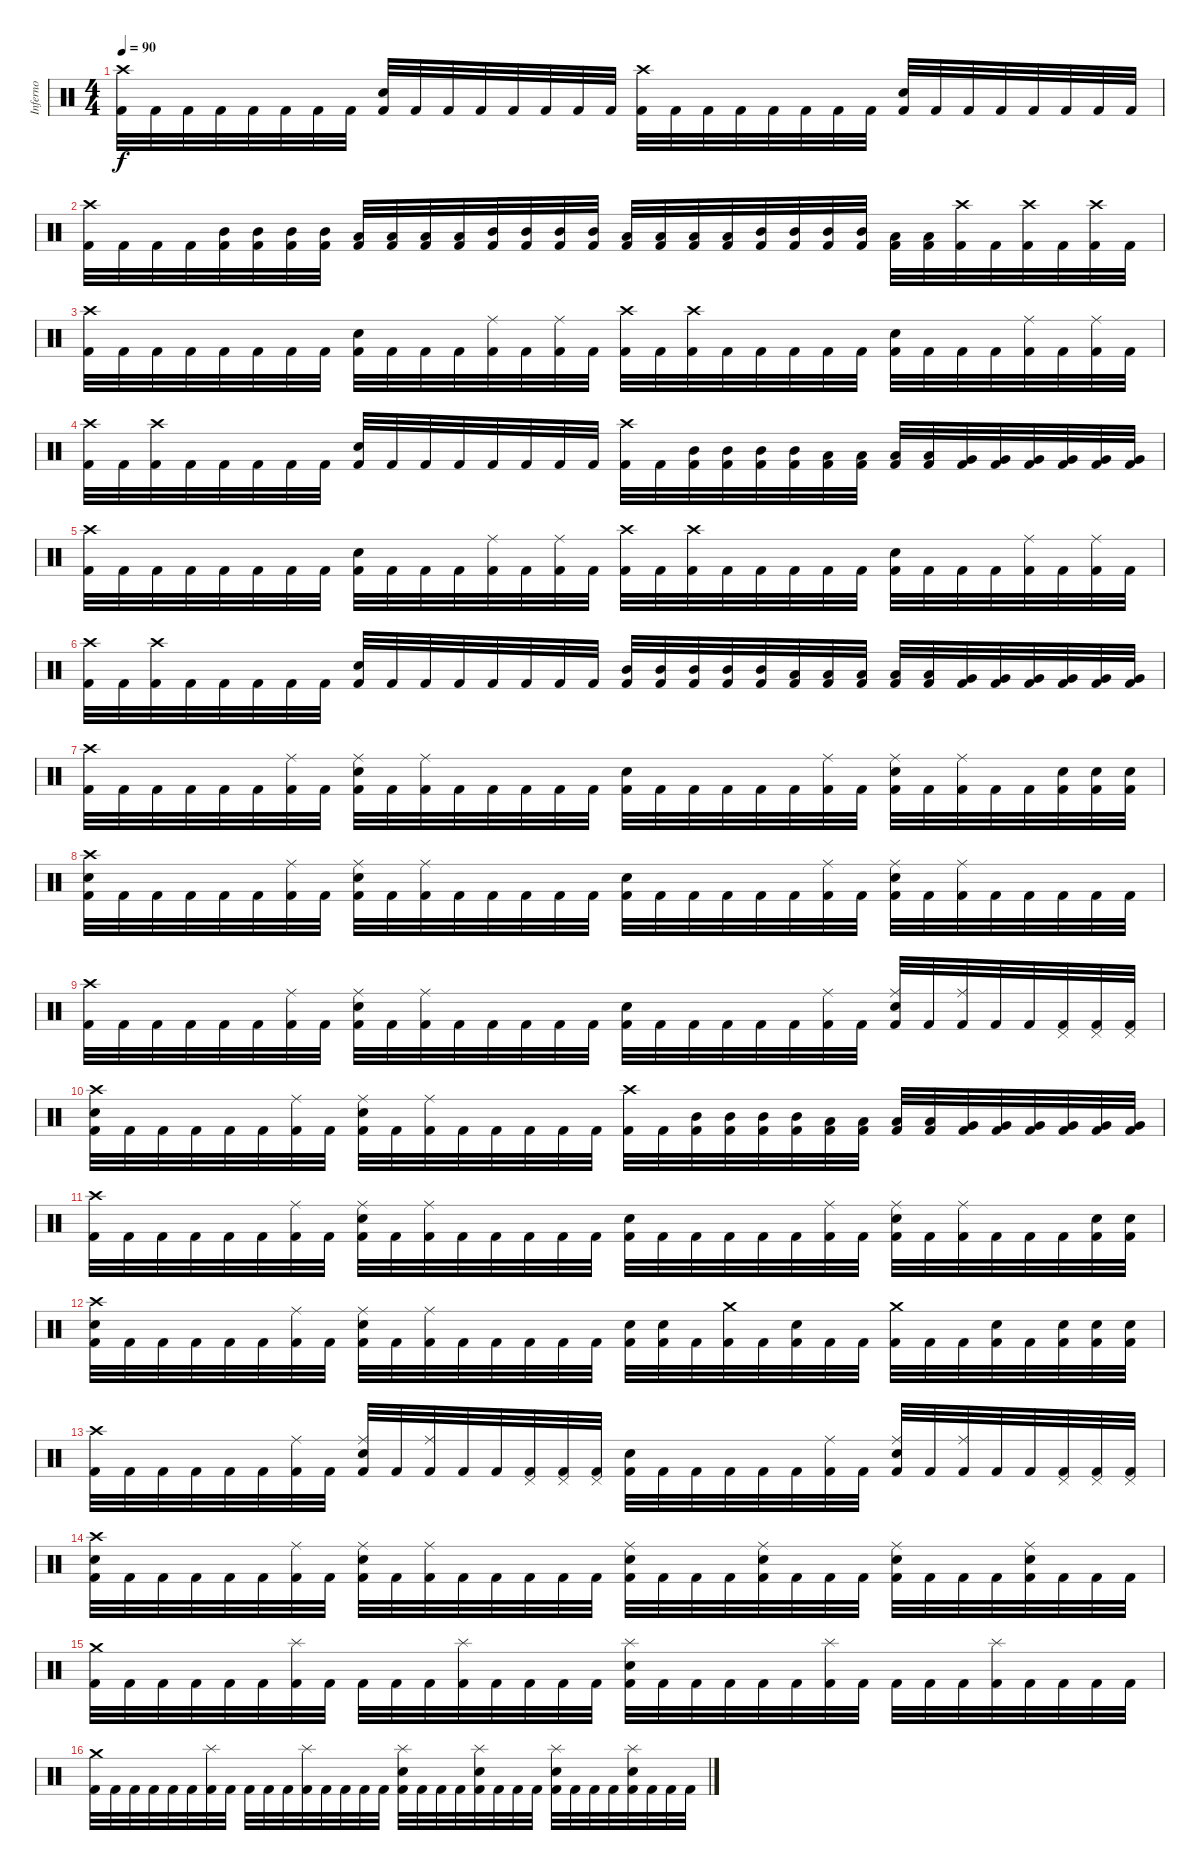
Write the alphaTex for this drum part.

\track ("Inferno" "Inferno") {instrument percussion}
\staff {score}
\articulation defaults
\ts (4 4)
\tempo 90
\clef neutral
\ks c
("Crash high (hit)" "Kick (hit) 2").32{dy f} "Kick (hit) 2".32 "Kick (hit) 2".32 "Kick (hit) 2".32 "Kick (hit) 2".32 "Kick (hit) 2".32 "Kick (hit) 2".32 "Kick (hit) 2".32 ("Electric Snare (hit)" "Kick (hit) 2").32 "Kick (hit) 2".32 "Kick (hit) 2".32 "Kick (hit) 2".32 "Kick (hit) 2".32 "Kick (hit) 2".32 "Kick (hit) 2".32 "Kick (hit) 2".32 ("Crash high (hit)" "Kick (hit) 2").32 "Kick (hit) 2".32 "Kick (hit) 2".32 "Kick (hit) 2".32 "Kick (hit) 2".32 "Kick (hit) 2".32 "Kick (hit) 2".32 "Kick (hit) 2".32 ("Electric Snare (hit)" "Kick (hit) 2").32 "Kick (hit) 2".32 "Kick (hit) 2".32 "Kick (hit) 2".32 "Kick (hit) 2".32 "Kick (hit) 2".32 "Kick (hit) 2".32 "Kick (hit) 2".32 |
("Crash high (hit)" "Kick (hit) 2").32 "Kick (hit) 2".32 "Kick (hit) 2".32 "Kick (hit) 2".32 ("Mid Tom (hit)" "Kick (hit) 2").32 ("Mid Tom (hit)" "Kick (hit) 2").32 ("Mid Tom (hit)" "Kick (hit) 2").32 ("Mid Tom (hit)" "Kick (hit) 2").32 ("Low Tom (hit)" "Kick (hit) 2").32 ("Low Tom (hit)" "Kick (hit) 2").32 ("Low Tom (hit)" "Kick (hit) 2").32 ("Low Tom (hit)" "Kick (hit) 2").32 ("Mid Tom (hit)" "Kick (hit) 2").32 ("Mid Tom (hit)" "Kick (hit) 2").32 ("Mid Tom (hit)" "Kick (hit) 2").32 ("Mid Tom (hit)" "Kick (hit) 2").32 ("Low Tom (hit)" "Kick (hit) 2").32 ("Low Tom (hit)" "Kick (hit) 2").32 ("Low Tom (hit)" "Kick (hit) 2").32 ("Low Tom (hit)" "Kick (hit) 2").32 ("Mid Tom (hit)" "Kick (hit) 2").32 ("Mid Tom (hit)" "Kick (hit) 2").32 ("Mid Tom (hit)" "Kick (hit) 2").32 ("Mid Tom (hit)" "Kick (hit) 2").32 ("Low Tom (hit)" "Kick (hit) 2").32 ("Low Tom (hit)" "Kick (hit) 2").32 ("Crash high (hit)" "Kick (hit) 2").32 "Kick (hit) 2".32 ("Crash high (hit)" "Kick (hit) 2").32 "Kick (hit) 2".32 ("Crash high (hit)" "Kick (hit) 2").32 "Kick (hit) 2".32 |
("Crash high (hit)" "Kick (hit) 2").32 "Kick (hit) 2".32 "Kick (hit) 2".32 "Kick (hit) 2".32 "Kick (hit) 2".32 "Kick (hit) 2".32 "Kick (hit) 2".32 "Kick (hit) 2".32 ("Electric Snare (hit)" "Kick (hit) 2").32 "Kick (hit) 2".32 "Kick (hit) 2".32 "Kick (hit) 2".32 ("Ride (middle)" "Kick (hit) 2").32 "Kick (hit) 2".32 ("Ride (middle)" "Kick (hit) 2").32 "Kick (hit) 2".32 ("Crash high (hit)" "Kick (hit) 2").32 "Kick (hit) 2".32 ("Crash high (hit)" "Kick (hit) 2").32 "Kick (hit) 2".32 "Kick (hit) 2".32 "Kick (hit) 2".32 "Kick (hit) 2".32 "Kick (hit) 2".32 ("Electric Snare (hit)" "Kick (hit) 2").32 "Kick (hit) 2".32 "Kick (hit) 2".32 "Kick (hit) 2".32 ("Ride (middle)" "Kick (hit) 2").32 "Kick (hit) 2".32 ("Ride (middle)" "Kick (hit) 2").32 "Kick (hit) 2".32 |
("Crash high (hit)" "Kick (hit) 2").32 "Kick (hit) 2".32 ("Crash high (hit)" "Kick (hit) 2").32 "Kick (hit) 2".32 "Kick (hit) 2".32 "Kick (hit) 2".32 "Kick (hit) 2".32 "Kick (hit) 2".32 ("Electric Snare (hit)" "Kick (hit) 2").32 "Kick (hit) 2".32 "Kick (hit) 2".32 "Kick (hit) 2".32 "Kick (hit) 2".32 "Kick (hit) 2".32 "Kick (hit) 2".32 "Kick (hit) 2".32 ("Crash high (hit)" "Kick (hit) 2").32 "Kick (hit) 2".32 ("Mid Tom (hit)" "Kick (hit) 2").32 ("Mid Tom (hit)" "Kick (hit) 2").32 ("Mid Tom (hit)" "Kick (hit) 2").32 ("Mid Tom (hit)" "Kick (hit) 2").32 ("Low Tom (hit)" "Kick (hit) 2").32 ("Low Tom (hit)" "Kick (hit) 2").32 ("Low Tom (hit)" "Kick (hit) 2").32 ("Low Tom (hit)" "Kick (hit) 2").32 ("Very Low Tom (hit)" "Kick (hit) 2").32 ("Very Low Tom (hit)" "Kick (hit) 2").32 ("Very Low Tom (hit)" "Kick (hit) 2").32 ("Very Low Tom (hit)" "Kick (hit) 2").32 ("Very Low Tom (hit)" "Kick (hit) 2").32 ("Very Low Tom (hit)" "Kick (hit) 2").32 |
("Crash high (hit)" "Kick (hit) 2").32 "Kick (hit) 2".32 "Kick (hit) 2".32 "Kick (hit) 2".32 "Kick (hit) 2".32 "Kick (hit) 2".32 "Kick (hit) 2".32 "Kick (hit) 2".32 ("Electric Snare (hit)" "Kick (hit) 2").32 "Kick (hit) 2".32 "Kick (hit) 2".32 "Kick (hit) 2".32 ("Ride (middle)" "Kick (hit) 2").32 "Kick (hit) 2".32 ("Ride (middle)" "Kick (hit) 2").32 "Kick (hit) 2".32 ("Crash high (hit)" "Kick (hit) 2").32 "Kick (hit) 2".32 ("Crash high (hit)" "Kick (hit) 2").32 "Kick (hit) 2".32 "Kick (hit) 2".32 "Kick (hit) 2".32 "Kick (hit) 2".32 "Kick (hit) 2".32 ("Electric Snare (hit)" "Kick (hit) 2").32 "Kick (hit) 2".32 "Kick (hit) 2".32 "Kick (hit) 2".32 ("Ride (middle)" "Kick (hit) 2").32 "Kick (hit) 2".32 ("Ride (middle)" "Kick (hit) 2").32 "Kick (hit) 2".32 |
("Crash high (hit)" "Kick (hit) 2").32 "Kick (hit) 2".32 ("Crash high (hit)" "Kick (hit) 2").32 "Kick (hit) 2".32 "Kick (hit) 2".32 "Kick (hit) 2".32 "Kick (hit) 2".32 "Kick (hit) 2".32 ("Electric Snare (hit)" "Kick (hit) 2").32 "Kick (hit) 2".32 "Kick (hit) 2".32 "Kick (hit) 2".32 "Kick (hit) 2".32 "Kick (hit) 2".32 "Kick (hit) 2".32 "Kick (hit) 2".32 ("Mid Tom (hit)" "Kick (hit) 2").32 ("Mid Tom (hit)" "Kick (hit) 2").32 ("Mid Tom (hit)" "Kick (hit) 2").32 ("Mid Tom (hit)" "Kick (hit) 2").32 ("Mid Tom (hit)" "Kick (hit) 2").32 ("Low Tom (hit)" "Kick (hit) 2").32 ("Low Tom (hit)" "Kick (hit) 2").32 ("Low Tom (hit)" "Kick (hit) 2").32 ("Low Tom (hit)" "Kick (hit) 2").32 ("Low Tom (hit)" "Kick (hit) 2").32 ("Very Low Tom (hit)" "Kick (hit) 2").32 ("Very Low Tom (hit)" "Kick (hit) 2").32 ("Very Low Tom (hit)" "Kick (hit) 2").32 ("Very Low Tom (hit)" "Kick (hit) 2").32 ("Very Low Tom (hit)" "Kick (hit) 2").32 ("Very Low Tom (hit)" "Kick (hit) 2").32 |
("Crash high (hit)" "Kick (hit) 2").32 "Kick (hit) 2".32 "Kick (hit) 2".32 "Kick (hit) 2".32 "Kick (hit) 2".32 "Kick (hit) 2".32 ("Ride (middle)" "Kick (hit) 2").32 "Kick (hit) 2".32 ("Ride (middle)" "Electric Snare (hit)" "Kick (hit) 2").32 "Kick (hit) 2".32 ("Ride (middle)" "Kick (hit) 2").32 "Kick (hit) 2".32 "Kick (hit) 2".32 "Kick (hit) 2".32 "Kick (hit) 2".32 "Kick (hit) 2".32 ("Electric Snare (hit)" "Kick (hit) 2").32 "Kick (hit) 2".32 "Kick (hit) 2".32 "Kick (hit) 2".32 "Kick (hit) 2".32 "Kick (hit) 2".32 ("Ride (middle)" "Kick (hit) 2").32 "Kick (hit) 2".32 ("Ride (middle)" "Electric Snare (hit)" "Kick (hit) 2").32 "Kick (hit) 2".32 ("Ride (middle)" "Kick (hit) 2").32 "Kick (hit) 2".32 "Kick (hit) 2".32 ("Electric Snare (hit)" "Kick (hit) 2").32 ("Electric Snare (hit)" "Kick (hit) 2").32 ("Electric Snare (hit)" "Kick (hit) 2").32 |
("Crash high (hit)" "Electric Snare (hit)" "Kick (hit) 2").32 "Kick (hit) 2".32 "Kick (hit) 2".32 "Kick (hit) 2".32 "Kick (hit) 2".32 "Kick (hit) 2".32 ("Ride (middle)" "Kick (hit) 2").32 "Kick (hit) 2".32 ("Ride (middle)" "Electric Snare (hit)" "Kick (hit) 2").32 "Kick (hit) 2".32 ("Ride (middle)" "Kick (hit) 2").32 "Kick (hit) 2".32 "Kick (hit) 2".32 "Kick (hit) 2".32 "Kick (hit) 2".32 "Kick (hit) 2".32 ("Electric Snare (hit)" "Kick (hit) 2").32 "Kick (hit) 2".32 "Kick (hit) 2".32 "Kick (hit) 2".32 "Kick (hit) 2".32 "Kick (hit) 2".32 ("Ride (middle)" "Kick (hit) 2").32 "Kick (hit) 2".32 ("Ride (middle)" "Electric Snare (hit)" "Kick (hit) 2").32 "Kick (hit) 2".32 ("Ride (middle)" "Kick (hit) 2").32 "Kick (hit) 2".32 "Kick (hit) 2".32 "Kick (hit) 2".32 "Kick (hit) 2".32 "Kick (hit) 2".32 |
("Crash high (hit)" "Kick (hit) 2").32 "Kick (hit) 2".32 "Kick (hit) 2".32 "Kick (hit) 2".32 "Kick (hit) 2".32 "Kick (hit) 2".32 ("Ride (middle)" "Kick (hit) 2").32 "Kick (hit) 2".32 ("Ride (middle)" "Electric Snare (hit)" "Kick (hit) 2").32 "Kick (hit) 2".32 ("Ride (middle)" "Kick (hit) 2").32 "Kick (hit) 2".32 "Kick (hit) 2".32 "Kick (hit) 2".32 "Kick (hit) 2".32 "Kick (hit) 2".32 ("Electric Snare (hit)" "Kick (hit) 2").32 "Kick (hit) 2".32 "Kick (hit) 2".32 "Kick (hit) 2".32 "Kick (hit) 2".32 "Kick (hit) 2".32 ("Ride (middle)" "Kick (hit) 2").32 "Kick (hit) 2".32 ("Ride (middle)" "Electric Snare (hit)" "Kick (hit) 2").32 "Kick (hit) 2".32 ("Ride (middle)" "Kick (hit) 2").32 "Kick (hit) 2".32 "Kick (hit) 2".32 ("Pedal Hi-Hat (hit)" "Kick (hit) 2").32 ("Pedal Hi-Hat (hit)" "Kick (hit) 2").32 ("Pedal Hi-Hat (hit)" "Kick (hit) 2").32 |
("Crash high (hit)" "Electric Snare (hit)" "Kick (hit) 2").32 "Kick (hit) 2".32 "Kick (hit) 2".32 "Kick (hit) 2".32 "Kick (hit) 2".32 "Kick (hit) 2".32 ("Ride (middle)" "Kick (hit) 2").32 "Kick (hit) 2".32 ("Ride (middle)" "Electric Snare (hit)" "Kick (hit) 2").32 "Kick (hit) 2".32 ("Ride (middle)" "Kick (hit) 2").32 "Kick (hit) 2".32 "Kick (hit) 2".32 "Kick (hit) 2".32 "Kick (hit) 2".32 "Kick (hit) 2".32 ("Crash high (hit)" "Kick (hit) 2").32 "Kick (hit) 2".32 ("Mid Tom (hit)" "Kick (hit) 2").32 ("Mid Tom (hit)" "Kick (hit) 2").32 ("Mid Tom (hit)" "Kick (hit) 2").32 ("Mid Tom (hit)" "Kick (hit) 2").32 ("Low Tom (hit)" "Kick (hit) 2").32 ("Low Tom (hit)" "Kick (hit) 2").32 ("Low Tom (hit)" "Kick (hit) 2").32 ("Low Tom (hit)" "Kick (hit) 2").32 ("Very Low Tom (hit)" "Kick (hit) 2").32 ("Very Low Tom (hit)" "Kick (hit) 2").32 ("Very Low Tom (hit)" "Kick (hit) 2").32 ("Very Low Tom (hit)" "Kick (hit) 2").32 ("Very Low Tom (hit)" "Kick (hit) 2").32 ("Very Low Tom (hit)" "Kick (hit) 2").32 |
("Crash high (hit)" "Kick (hit) 2").32 "Kick (hit) 2".32 "Kick (hit) 2".32 "Kick (hit) 2".32 "Kick (hit) 2".32 "Kick (hit) 2".32 ("Ride (middle)" "Kick (hit) 2").32 "Kick (hit) 2".32 ("Ride (middle)" "Electric Snare (hit)" "Kick (hit) 2").32 "Kick (hit) 2".32 ("Ride (middle)" "Kick (hit) 2").32 "Kick (hit) 2".32 "Kick (hit) 2".32 "Kick (hit) 2".32 "Kick (hit) 2".32 "Kick (hit) 2".32 ("Electric Snare (hit)" "Kick (hit) 2").32 "Kick (hit) 2".32 "Kick (hit) 2".32 "Kick (hit) 2".32 "Kick (hit) 2".32 "Kick (hit) 2".32 ("Ride (middle)" "Kick (hit) 2").32 "Kick (hit) 2".32 ("Ride (middle)" "Electric Snare (hit)" "Kick (hit) 2").32 "Kick (hit) 2".32 ("Ride (middle)" "Kick (hit) 2").32 "Kick (hit) 2".32 "Kick (hit) 2".32 "Kick (hit) 2".32 ("Electric Snare (hit)" "Kick (hit) 2").32 ("Electric Snare (hit)" "Kick (hit) 2").32 |
("Crash high (hit)" "Electric Snare (hit)" "Kick (hit) 2").32 "Kick (hit) 2".32 "Kick (hit) 2".32 "Kick (hit) 2".32 "Kick (hit) 2".32 "Kick (hit) 2".32 ("Ride (middle)" "Kick (hit) 2").32 "Kick (hit) 2".32 ("Ride (middle)" "Electric Snare (hit)" "Kick (hit) 2").32 "Kick (hit) 2".32 ("Ride (middle)" "Kick (hit) 2").32 "Kick (hit) 2".32 "Kick (hit) 2".32 "Kick (hit) 2".32 "Kick (hit) 2".32 "Kick (hit) 2".32 ("Electric Snare (hit)" "Kick (hit) 2").32 ("Electric Snare (hit)" "Kick (hit) 2").32 "Kick (hit) 2".32 ("Crash medium (hit)" "Kick (hit) 2").32 "Kick (hit) 2".32 ("Electric Snare (hit)" "Kick (hit) 2").32 "Kick (hit) 2".32 "Kick (hit) 2".32 ("Crash medium (hit)" "Kick (hit) 2").32 "Kick (hit) 2".32 "Kick (hit) 2".32 ("Electric Snare (hit)" "Kick (hit) 2").32 "Kick (hit) 2".32 ("Electric Snare (hit)" "Kick (hit) 2").32 ("Electric Snare (hit)" "Kick (hit) 2").32 ("Electric Snare (hit)" "Kick (hit) 2").32 |
("Crash high (hit)" "Kick (hit) 2").32 "Kick (hit) 2".32 "Kick (hit) 2".32 "Kick (hit) 2".32 "Kick (hit) 2".32 "Kick (hit) 2".32 ("Ride (middle)" "Kick (hit) 2").32 "Kick (hit) 2".32 ("Ride (middle)" "Electric Snare (hit)" "Kick (hit) 2").32 "Kick (hit) 2".32 ("Ride (middle)" "Kick (hit) 2").32 "Kick (hit) 2".32 "Kick (hit) 2".32 ("Pedal Hi-Hat (hit)" "Kick (hit) 2").32 ("Pedal Hi-Hat (hit)" "Kick (hit) 2").32 ("Pedal Hi-Hat (hit)" "Kick (hit) 2").32 ("Electric Snare (hit)" "Kick (hit) 2").32 "Kick (hit) 2".32 "Kick (hit) 2".32 "Kick (hit) 2".32 "Kick (hit) 2".32 "Kick (hit) 2".32 ("Ride (middle)" "Kick (hit) 2").32 "Kick (hit) 2".32 ("Ride (middle)" "Electric Snare (hit)" "Kick (hit) 2").32 "Kick (hit) 2".32 ("Ride (middle)" "Kick (hit) 2").32 "Kick (hit) 2".32 "Kick (hit) 2".32 ("Pedal Hi-Hat (hit)" "Kick (hit) 2").32 ("Pedal Hi-Hat (hit)" "Kick (hit) 2").32 ("Pedal Hi-Hat (hit)" "Kick (hit) 2").32 |
("Crash high (hit)" "Electric Snare (hit)" "Kick (hit) 2").32 "Kick (hit) 2".32 "Kick (hit) 2".32 "Kick (hit) 2".32 "Kick (hit) 2".32 "Kick (hit) 2".32 ("Ride (middle)" "Kick (hit) 2").32 "Kick (hit) 2".32 ("Ride (middle)" "Electric Snare (hit)" "Kick (hit) 2").32 "Kick (hit) 2".32 ("Ride (middle)" "Kick (hit) 2").32 "Kick (hit) 2".32 "Kick (hit) 2".32 "Kick (hit) 2".32 "Kick (hit) 2".32 "Kick (hit) 2".32 ("Ride (middle)" "Electric Snare (hit)" "Kick (hit) 2").32 "Kick (hit) 2".32 "Kick (hit) 2".32 "Kick (hit) 2".32 ("Ride (middle)" "Electric Snare (hit)" "Kick (hit) 2").32 "Kick (hit) 2".32 "Kick (hit) 2".32 "Kick (hit) 2".32 ("Ride (middle)" "Electric Snare (hit)" "Kick (hit) 2").32 "Kick (hit) 2".32 "Kick (hit) 2".32 "Kick (hit) 2".32 ("Ride (middle)" "Electric Snare (hit)" "Kick (hit) 2").32 "Kick (hit) 2".32 "Kick (hit) 2".32 "Kick (hit) 2".32 |
("Crash medium (hit)" "Kick (hit) 2").32 "Kick (hit) 2".32 "Kick (hit) 2".32 "Kick (hit) 2".32 "Kick (hit) 2".32 "Kick (hit) 2".32 ("Splash (hit)" "Kick (hit) 2").32 "Kick (hit) 2".32 "Kick (hit) 2".32 "Kick (hit) 2".32 "Kick (hit) 2".32 ("Splash (hit)" "Kick (hit) 2").32 "Kick (hit) 2".32 "Kick (hit) 2".32 "Kick (hit) 2".32 "Kick (hit) 2".32 ("Splash (hit)" "Electric Snare (hit)" "Kick (hit) 2").32 "Kick (hit) 2".32 "Kick (hit) 2".32 "Kick (hit) 2".32 "Kick (hit) 2".32 "Kick (hit) 2".32 ("Splash (hit)" "Kick (hit) 2").32 "Kick (hit) 2".32 "Kick (hit) 2".32 "Kick (hit) 2".32 "Kick (hit) 2".32 ("Splash (hit)" "Kick (hit) 2").32 "Kick (hit) 2".32 "Kick (hit) 2".32 "Kick (hit) 2".32 "Kick (hit) 2".32 |
("Crash medium (hit)" "Kick (hit) 2").32 "Kick (hit) 2".32 "Kick (hit) 2".32 "Kick (hit) 2".32 "Kick (hit) 2".32 "Kick (hit) 2".32 ("Splash (hit)" "Kick (hit) 2").32 "Kick (hit) 2".32 "Kick (hit) 2".32 "Kick (hit) 2".32 "Kick (hit) 2".32 ("Splash (hit)" "Kick (hit) 2").32 "Kick (hit) 2".32 "Kick (hit) 2".32 "Kick (hit) 2".32 "Kick (hit) 2".32 ("Splash (hit)" "Electric Snare (hit)" "Kick (hit) 2").32 "Kick (hit) 2".32 "Kick (hit) 2".32 "Kick (hit) 2".32 ("Splash (hit)" "Electric Snare (hit)" "Kick (hit) 2").32 "Kick (hit) 2".32 "Kick (hit) 2".32 "Kick (hit) 2".32 ("Splash (hit)" "Electric Snare (hit)" "Kick (hit) 2").32 "Kick (hit) 2".32 "Kick (hit) 2".32 "Kick (hit) 2".32 ("Splash (hit)" "Electric Snare (hit)" "Kick (hit) 2").32 "Kick (hit) 2".32 "Kick (hit) 2".32 "Kick (hit) 2".32
